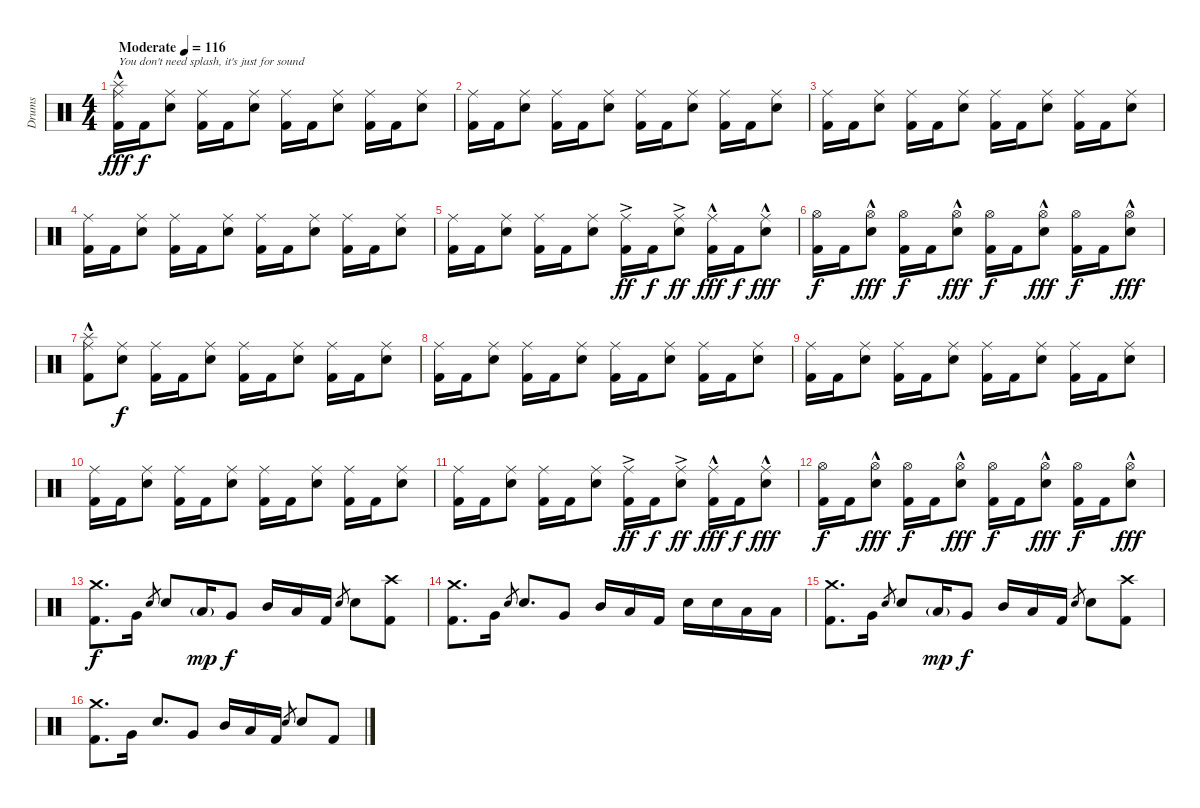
\track ("Drums" "Drums") {instrument percussion}
\staff {score}
\articulation defaults
\ts (4 4)
\tempo (116 "Moderate")
\clef neutral
\ks c
("Ride (middle)"{hac} "Splash (hit)" "Kick (hit) 2").16{txt "You don't need splash, it's just for sound" dy fff} "Kick (hit) 2".16{dy f} ("Ride (middle)" "Electric Snare (hit)").8 ("Ride (middle)" "Kick (hit) 2").16 "Kick (hit) 2".16 ("Ride (middle)" "Electric Snare (hit)").8 ("Ride (middle)" "Kick (hit) 2").16 "Kick (hit) 2".16 ("Ride (middle)" "Electric Snare (hit)").8 ("Ride (middle)" "Kick (hit) 2").16 "Kick (hit) 2".16 ("Ride (middle)" "Electric Snare (hit)").8 |
("Ride (middle)" "Kick (hit) 2").16 "Kick (hit) 2".16 ("Ride (middle)" "Electric Snare (hit)").8 ("Ride (middle)" "Kick (hit) 2").16 "Kick (hit) 2".16 ("Ride (middle)" "Electric Snare (hit)").8 ("Ride (middle)" "Kick (hit) 2").16 "Kick (hit) 2".16 ("Ride (middle)" "Electric Snare (hit)").8 ("Ride (middle)" "Kick (hit) 2").16 "Kick (hit) 2".16 ("Ride (middle)" "Electric Snare (hit)").8 |
("Ride (middle)" "Kick (hit) 2").16 "Kick (hit) 2".16 ("Ride (middle)" "Electric Snare (hit)").8 ("Ride (middle)" "Kick (hit) 2").16 "Kick (hit) 2".16 ("Ride (middle)" "Electric Snare (hit)").8 ("Ride (middle)" "Kick (hit) 2").16 "Kick (hit) 2".16 ("Ride (middle)" "Electric Snare (hit)").8 ("Ride (middle)" "Kick (hit) 2").16 "Kick (hit) 2".16 ("Ride (middle)" "Electric Snare (hit)").8 |
("Ride (middle)" "Kick (hit) 2").16 "Kick (hit) 2".16 ("Ride (middle)" "Electric Snare (hit)").8 ("Ride (middle)" "Kick (hit) 2").16 "Kick (hit) 2".16 ("Ride (middle)" "Electric Snare (hit)").8 ("Ride (middle)" "Kick (hit) 2").16 "Kick (hit) 2".16 ("Ride (middle)" "Electric Snare (hit)").8 ("Ride (middle)" "Kick (hit) 2").16 "Kick (hit) 2".16 ("Ride (middle)" "Electric Snare (hit)").8 |
("Ride (middle)" "Kick (hit) 2").16 "Kick (hit) 2".16 ("Ride (middle)" "Electric Snare (hit)").8 ("Ride (middle)" "Kick (hit) 2").16 "Kick (hit) 2".16 ("Ride (middle)" "Electric Snare (hit)").8 ("Ride (middle)"{ac} "Kick (hit) 2").16{dy ff} "Kick (hit) 2".16{dy f} ("Ride (middle)"{ac} "Electric Snare (hit)").8{dy ff} ("Ride (middle)"{hac} "Kick (hit) 2").16{dy fff} "Kick (hit) 2".16{dy f} ("Ride (middle)"{hac} "Electric Snare (hit)").8{dy fff} |
("Hi-Hat (open)" "Kick (hit) 2").16{dy f} "Kick (hit) 2".16 ("Hi-Hat (open)"{hac} "Electric Snare (hit)").8{dy fff} ("Hi-Hat (open)" "Kick (hit) 2").16{dy f} "Kick (hit) 2".16 ("Hi-Hat (open)"{hac} "Electric Snare (hit)").8{dy fff} ("Hi-Hat (open)" "Kick (hit) 2").16{dy f} "Kick (hit) 2".16 ("Hi-Hat (open)"{hac} "Electric Snare (hit)").8{dy fff} ("Hi-Hat (open)" "Kick (hit) 2").16{dy f} "Kick (hit) 2".16 ("Hi-Hat (open)"{hac} "Electric Snare (hit)").8{dy fff} |
("Ride (middle)"{hac} "Splash (hit)"{hac} "Kick (hit) 2").8 ("Ride (middle)" "Electric Snare (hit)").8{dy f} ("Ride (middle)" "Kick (hit) 2").16 "Kick (hit) 2".16 ("Ride (middle)" "Electric Snare (hit)").8 ("Ride (middle)" "Kick (hit) 2").16 "Kick (hit) 2".16 ("Ride (middle)" "Electric Snare (hit)").8 ("Ride (middle)" "Kick (hit) 2").16 "Kick (hit) 2".16 ("Ride (middle)" "Electric Snare (hit)").8 |
("Ride (middle)" "Kick (hit) 2").16 "Kick (hit) 2".16 ("Ride (middle)" "Electric Snare (hit)").8 ("Ride (middle)" "Kick (hit) 2").16 "Kick (hit) 2".16 ("Ride (middle)" "Electric Snare (hit)").8 ("Ride (middle)" "Kick (hit) 2").16 "Kick (hit) 2".16 ("Ride (middle)" "Electric Snare (hit)").8 ("Ride (middle)" "Kick (hit) 2").16 "Kick (hit) 2".16 ("Ride (middle)" "Electric Snare (hit)").8 |
("Ride (middle)" "Kick (hit) 2").16 "Kick (hit) 2".16 ("Ride (middle)" "Electric Snare (hit)").8 ("Ride (middle)" "Kick (hit) 2").16 "Kick (hit) 2".16 ("Ride (middle)" "Electric Snare (hit)").8 ("Ride (middle)" "Kick (hit) 2").16 "Kick (hit) 2".16 ("Ride (middle)" "Electric Snare (hit)").8 ("Ride (middle)" "Kick (hit) 2").16 "Kick (hit) 2".16 ("Ride (middle)" "Electric Snare (hit)").8 |
("Ride (middle)" "Kick (hit) 2").16 "Kick (hit) 2".16 ("Ride (middle)" "Electric Snare (hit)").8 ("Ride (middle)" "Kick (hit) 2").16 "Kick (hit) 2".16 ("Ride (middle)" "Electric Snare (hit)").8 ("Ride (middle)" "Kick (hit) 2").16 "Kick (hit) 2".16 ("Ride (middle)" "Electric Snare (hit)").8 ("Ride (middle)" "Kick (hit) 2").16 "Kick (hit) 2".16 ("Ride (middle)" "Electric Snare (hit)").8 |
("Ride (middle)" "Kick (hit) 2").16 "Kick (hit) 2".16 ("Ride (middle)" "Electric Snare (hit)").8 ("Ride (middle)" "Kick (hit) 2").16 "Kick (hit) 2".16 ("Ride (middle)" "Electric Snare (hit)").8 ("Ride (middle)"{ac} "Kick (hit) 2").16{dy ff} "Kick (hit) 2".16{dy f} ("Ride (middle)"{ac} "Electric Snare (hit)").8{dy ff} ("Ride (middle)"{hac} "Kick (hit) 2").16{dy fff} "Kick (hit) 2".16{dy f} ("Ride (middle)"{hac} "Electric Snare (hit)").8{dy fff} |
("Hi-Hat (open)" "Kick (hit) 2").16{dy f} "Kick (hit) 2".16 ("Hi-Hat (open)"{hac} "Electric Snare (hit)").8{dy fff} ("Hi-Hat (open)" "Kick (hit) 2").16{dy f} "Kick (hit) 2".16 ("Hi-Hat (open)"{hac} "Electric Snare (hit)").8{dy fff} ("Hi-Hat (open)" "Kick (hit) 2").16{dy f} "Kick (hit) 2".16 ("Hi-Hat (open)"{hac} "Electric Snare (hit)").8{dy fff} ("Hi-Hat (open)" "Kick (hit) 2").16{dy f} "Kick (hit) 2".16 ("Hi-Hat (open)"{hac} "Electric Snare (hit)").8{dy fff} |
("Crash medium (hit)" "Kick (hit) 2").8{d dy f} "Very Low Tom (hit)".16 "Electric Snare (hit)".8{gr} "Electric Snare (hit)".8 "Low Tom (hit)"{g}.16{dy mp} "Very Low Tom (hit)".8{dy f} "Mid Tom (hit)".16 "Low Tom (hit)".16 "Kick (hit) 2".16 "Electric Snare (hit)".8{gr} "Electric Snare (hit)".8 ("Crash high (hit)" "Kick (hit) 2").8 |
("Crash medium (hit)" "Kick (hit) 2").8{d} "Very Low Tom (hit)".16 "Electric Snare (hit)".8{gr} "Electric Snare (hit)".8{d} "Very Low Tom (hit)".8 "Mid Tom (hit)".16 "Low Tom (hit)".16 "Kick (hit) 2".16 "Electric Snare (hit)".16 "Electric Snare (hit)".16 "Low Tom (hit)".16 "Low Tom (hit)".16 |
("Crash medium (hit)" "Kick (hit) 2").8{d} "Very Low Tom (hit)".16 "Electric Snare (hit)".8{gr} "Electric Snare (hit)".8 "Low Tom (hit)"{g}.16{dy mp} "Very Low Tom (hit)".8{dy f} "Mid Tom (hit)".16 "Low Tom (hit)".16 "Kick (hit) 2".16 "Electric Snare (hit)".8{gr} "Electric Snare (hit)".8 ("Crash high (hit)" "Kick (hit) 2").8 |
("Crash medium (hit)" "Kick (hit) 2").8{d} "Very Low Tom (hit)".16 "Electric Snare (hit)".8{d} "Very Low Tom (hit)".8 "Mid Tom (hit)".16 "Low Tom (hit)".16 "Kick (hit) 2".16 "Electric Snare (hit)".8{gr} "Electric Snare (hit)".8 "Kick (hit) 2".8
